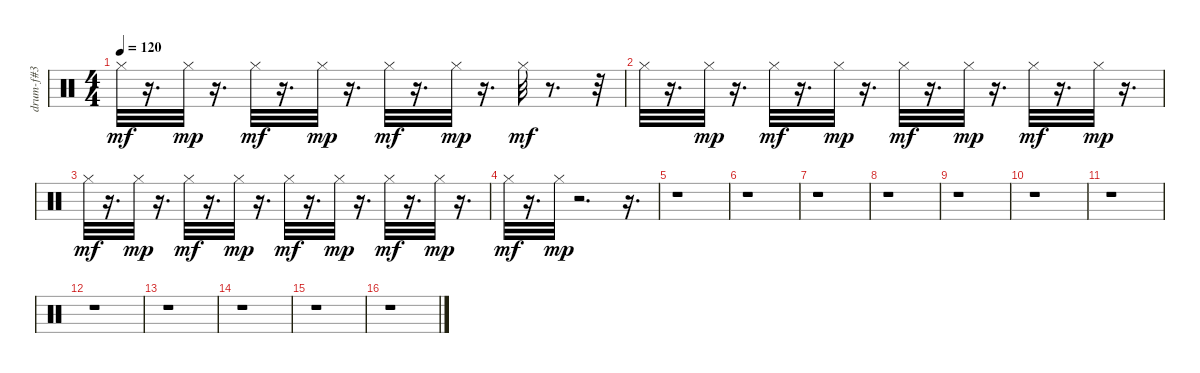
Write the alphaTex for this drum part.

\track ("drum-f#3" "drum-f#3") {instrument percussion}
\staff {score}
\articulation defaults
\ts (4 4)
\tempo 120
\clef neutral
\ks c "Hi-Hat (closed)".32{dy mf}
r.16{d} "Hi-Hat (closed)".32{dy mp} r.16{d} "Hi-Hat (closed)".32{dy mf} r.16{d} "Hi-Hat (closed)".32{dy mp} r.16{d} "Hi-Hat (closed)".32{dy mf} r.16{d} "Hi-Hat (closed)".32{dy mp} r.16{d} "Hi-Hat (closed)".32{dy mf} r.8{d} r.32 |
"Hi-Hat (closed)".32 r.16{d} "Hi-Hat (closed)".32{dy mp} r.16{d} "Hi-Hat (closed)".32{dy mf} r.16{d} "Hi-Hat (closed)".32{dy mp} r.16{d} "Hi-Hat (closed)".32{dy mf} r.16{d} "Hi-Hat (closed)".32{dy mp} r.16{d} "Hi-Hat (closed)".32{dy mf} r.16{d} "Hi-Hat (closed)".32{dy mp} r.16{d} |
"Hi-Hat (closed)".32{dy mf} r.16{d} "Hi-Hat (closed)".32{dy mp} r.16{d} "Hi-Hat (closed)".32{dy mf} r.16{d} "Hi-Hat (closed)".32{dy mp} r.16{d} "Hi-Hat (closed)".32{dy mf} r.16{d} "Hi-Hat (closed)".32{dy mp} r.16{d} "Hi-Hat (closed)".32{dy mf} r.16{d} "Hi-Hat (closed)".32{dy mp} r.16{d} |
"Hi-Hat (closed)".32{dy mf} r.16{d} "Hi-Hat (closed)".32{dy mp} r.2{d} r.16{d} |
r.1 |
r.1 |
r.1 |
r.1 |
r.1 |
r.1 |
r.1 |
r.1 |
r.1 |
r.1 |
r.1 |
r.1
